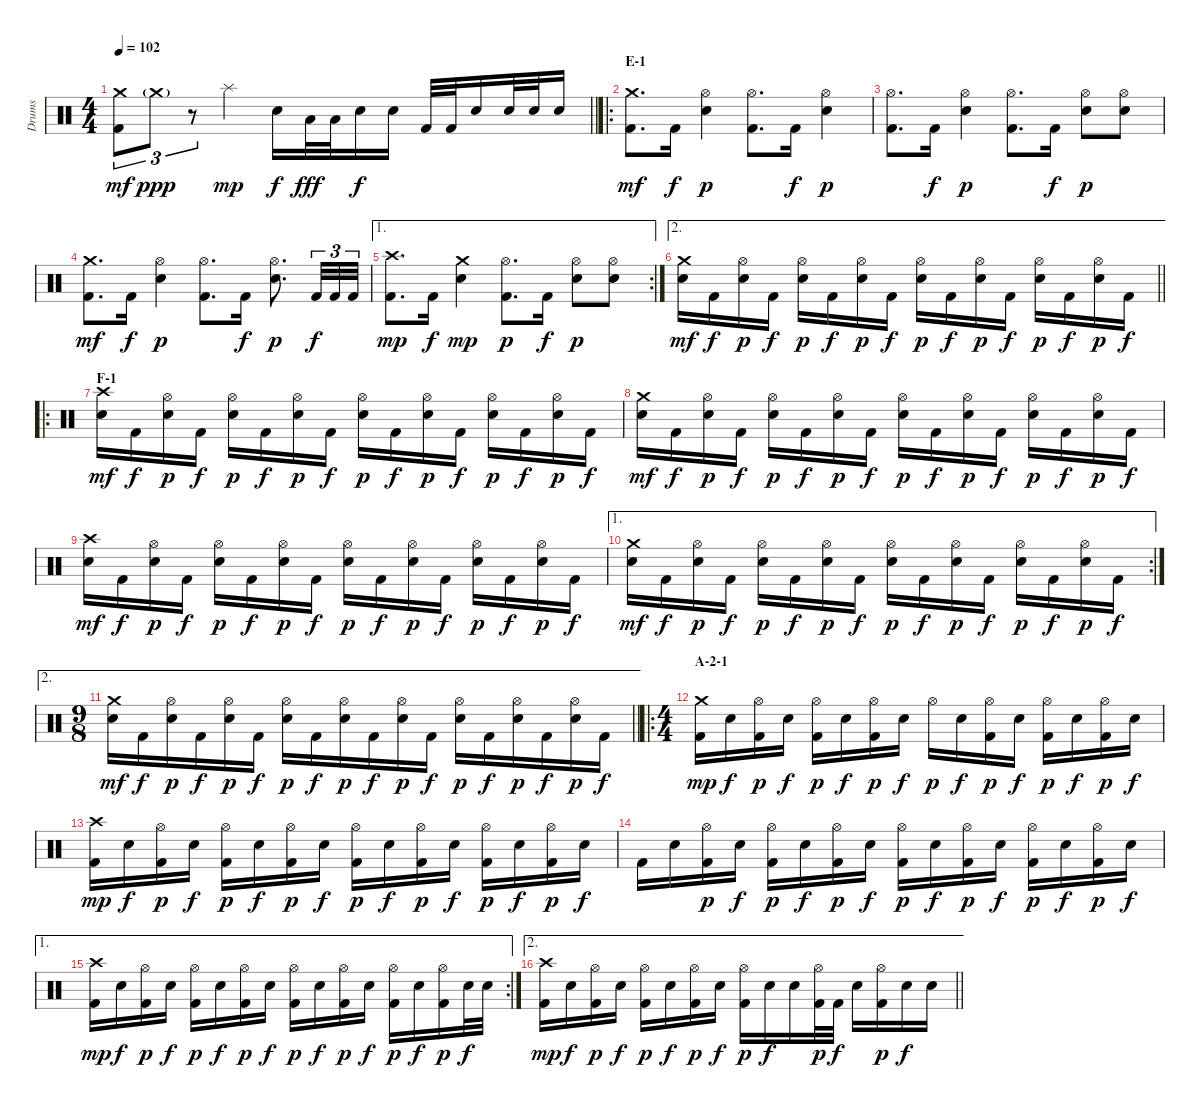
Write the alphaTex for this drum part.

\track ("Drums" "Drums") {instrument percussion}
\staff {score}
\articulation defaults
\ts (4 4)
\tempo 102
\clef neutral
\barLineRight lightlight
\ks c
("Crash medium (hit)" "Kick (hit) 2").8{tu (3 2) dy mf} "Crash medium (hit)"{g}.8{tu (3 2) dy ppp} r.8{tu (3 2)} "Splash (hit)".4{dy mp} "Electric Snare (hit)".16{dy f} "Low Tom (hit)".32{dy fff} "Low Tom (hit)".32 "Electric Snare (hit)".16{dy f} "Electric Snare (hit)".16 "Kick (hit) 2".32 "Kick (hit) 2".32 "Electric Snare (hit)".16 "Electric Snare (hit)".32 "Electric Snare (hit)".32 "Electric Snare (hit)".16 |
\ro
\section ("" "E-1")
("Crash medium (hit)" "Kick (hit) 2").8{d dy mf} "Kick (hit) 2".16{dy f} ("Hi-Hat (open)" "Electric Snare (hit)").4{dy p} ("Hi-Hat (open)" "Kick (hit) 2").8{d} "Kick (hit) 2".16{dy f} ("Hi-Hat (open)" "Electric Snare (hit)").4{dy p} |
("Hi-Hat (open)" "Kick (hit) 2").8{d} "Kick (hit) 2".16{dy f} ("Hi-Hat (open)" "Electric Snare (hit)").4{dy p} ("Hi-Hat (open)" "Kick (hit) 2").8{d} "Kick (hit) 2".16{dy f} ("Hi-Hat (open)" "Electric Snare (hit)").8{dy p} ("Hi-Hat (open)" "Electric Snare (hit)").8 |
("Crash medium (hit)" "Kick (hit) 2").8{d dy mf} "Kick (hit) 2".16{dy f} ("Hi-Hat (open)" "Electric Snare (hit)").4{dy p} ("Hi-Hat (open)" "Kick (hit) 2").8{d} "Kick (hit) 2".16{dy f} ("Hi-Hat (open)" "Electric Snare (hit)").8{d dy p} "Kick (hit) 2".32{tu (3 2) dy f} "Kick (hit) 2".32{tu (3 2)} "Kick (hit) 2".32{tu (3 2)} |
\ae 1
\rc 2
("Crash high (hit)" "Kick (hit) 2").8{d dy mp} "Kick (hit) 2".16{dy f} ("Crash medium (hit)" "Electric Snare (hit)").4{dy mp} ("Hi-Hat (open)" "Kick (hit) 2").8{d dy p} "Kick (hit) 2".16{dy f} ("Hi-Hat (open)" "Electric Snare (hit)").8{dy p} ("Hi-Hat (open)" "Electric Snare (hit)").8 |
\ae 2
\barLineRight lightlight
("Crash medium (hit)" "Electric Snare (hit)").16{dy mf} "Kick (hit) 2".16{dy f} ("Hi-Hat (open)" "Electric Snare (hit)").16{dy p} "Kick (hit) 2".16{dy f} ("Hi-Hat (open)" "Electric Snare (hit)").16{dy p} "Kick (hit) 2".16{dy f} ("Hi-Hat (open)" "Electric Snare (hit)").16{dy p} "Kick (hit) 2".16{dy f} ("Hi-Hat (open)" "Electric Snare (hit)").16{dy p} "Kick (hit) 2".16{dy f} ("Hi-Hat (open)" "Electric Snare (hit)").16{dy p} "Kick (hit) 2".16{dy f} ("Hi-Hat (open)" "Electric Snare (hit)").16{dy p} "Kick (hit) 2".16{dy f} ("Hi-Hat (open)" "Electric Snare (hit)").16{dy p} "Kick (hit) 2".16{dy f} |
\ro
\section ("" "F-1")
("Crash high (hit)" "Electric Snare (hit)").16{dy mf} "Kick (hit) 2".16{dy f} ("Hi-Hat (open)" "Electric Snare (hit)").16{dy p} "Kick (hit) 2".16{dy f} ("Hi-Hat (open)" "Electric Snare (hit)").16{dy p} "Kick (hit) 2".16{dy f} ("Hi-Hat (open)" "Electric Snare (hit)").16{dy p} "Kick (hit) 2".16{dy f} ("Hi-Hat (open)" "Electric Snare (hit)").16{dy p} "Kick (hit) 2".16{dy f} ("Hi-Hat (open)" "Electric Snare (hit)").16{dy p} "Kick (hit) 2".16{dy f} ("Hi-Hat (open)" "Electric Snare (hit)").16{dy p} "Kick (hit) 2".16{dy f} ("Hi-Hat (open)" "Electric Snare (hit)").16{dy p} "Kick (hit) 2".16{dy f} |
("Crash medium (hit)" "Electric Snare (hit)").16{dy mf} "Kick (hit) 2".16{dy f} ("Hi-Hat (open)" "Electric Snare (hit)").16{dy p} "Kick (hit) 2".16{dy f} ("Hi-Hat (open)" "Electric Snare (hit)").16{dy p} "Kick (hit) 2".16{dy f} ("Hi-Hat (open)" "Electric Snare (hit)").16{dy p} "Kick (hit) 2".16{dy f} ("Hi-Hat (open)" "Electric Snare (hit)").16{dy p} "Kick (hit) 2".16{dy f} ("Hi-Hat (open)" "Electric Snare (hit)").16{dy p} "Kick (hit) 2".16{dy f} ("Hi-Hat (open)" "Electric Snare (hit)").16{dy p} "Kick (hit) 2".16{dy f} ("Hi-Hat (open)" "Electric Snare (hit)").16{dy p} "Kick (hit) 2".16{dy f} |
("Crash high (hit)" "Electric Snare (hit)").16{dy mf} "Kick (hit) 2".16{dy f} ("Hi-Hat (open)" "Electric Snare (hit)").16{dy p} "Kick (hit) 2".16{dy f} ("Hi-Hat (open)" "Electric Snare (hit)").16{dy p} "Kick (hit) 2".16{dy f} ("Hi-Hat (open)" "Electric Snare (hit)").16{dy p} "Kick (hit) 2".16{dy f} ("Hi-Hat (open)" "Electric Snare (hit)").16{dy p} "Kick (hit) 2".16{dy f} ("Hi-Hat (open)" "Electric Snare (hit)").16{dy p} "Kick (hit) 2".16{dy f} ("Hi-Hat (open)" "Electric Snare (hit)").16{dy p} "Kick (hit) 2".16{dy f} ("Hi-Hat (open)" "Electric Snare (hit)").16{dy p} "Kick (hit) 2".16{dy f} |
\ae 1
\rc 2
("Crash medium (hit)" "Electric Snare (hit)").16{dy mf} "Kick (hit) 2".16{dy f} ("Hi-Hat (open)" "Electric Snare (hit)").16{dy p} "Kick (hit) 2".16{dy f} ("Hi-Hat (open)" "Electric Snare (hit)").16{dy p} "Kick (hit) 2".16{dy f} ("Hi-Hat (open)" "Electric Snare (hit)").16{dy p} "Kick (hit) 2".16{dy f} ("Hi-Hat (open)" "Electric Snare (hit)").16{dy p} "Kick (hit) 2".16{dy f} ("Hi-Hat (open)" "Electric Snare (hit)").16{dy p} "Kick (hit) 2".16{dy f} ("Hi-Hat (open)" "Electric Snare (hit)").16{dy p} "Kick (hit) 2".16{dy f} ("Hi-Hat (open)" "Electric Snare (hit)").16{dy p} "Kick (hit) 2".16{dy f} |
\ae 2
\ts (9 8)
\barLineRight lightlight
("Crash medium (hit)" "Electric Snare (hit)").16{dy mf} "Kick (hit) 2".16{dy f} ("Hi-Hat (open)" "Electric Snare (hit)").16{dy p} "Kick (hit) 2".16{dy f} ("Hi-Hat (open)" "Electric Snare (hit)").16{dy p} "Kick (hit) 2".16{dy f} ("Hi-Hat (open)" "Electric Snare (hit)").16{dy p} "Kick (hit) 2".16{dy f} ("Hi-Hat (open)" "Electric Snare (hit)").16{dy p} "Kick (hit) 2".16{dy f} ("Hi-Hat (open)" "Electric Snare (hit)").16{dy p} "Kick (hit) 2".16{dy f} ("Hi-Hat (open)" "Electric Snare (hit)").16{dy p} "Kick (hit) 2".16{dy f} ("Hi-Hat (open)" "Electric Snare (hit)").16{dy p} "Kick (hit) 2".16{dy f} ("Hi-Hat (open)" "Electric Snare (hit)").16{dy p} "Kick (hit) 2".16{dy f} |
\ro
\ts (4 4)
\section ("" "A-2-1")
("Crash medium (hit)" "Kick (hit) 2").16{dy mp} "Electric Snare (hit)".16{dy f} ("Hi-Hat (open)" "Kick (hit) 2").16{dy p} "Electric Snare (hit)".16{dy f} ("Hi-Hat (open)" "Kick (hit) 2").16{dy p} "Electric Snare (hit)".16{dy f} ("Hi-Hat (open)" "Kick (hit) 2").16{dy p} "Electric Snare (hit)".16{dy f} "Hi-Hat (open)".16{dy p} "Electric Snare (hit)".16{dy f} ("Hi-Hat (open)" "Kick (hit) 2").16{dy p} "Electric Snare (hit)".16{dy f} ("Hi-Hat (open)" "Kick (hit) 2").16{dy p} "Electric Snare (hit)".16{dy f} ("Hi-Hat (open)" "Kick (hit) 2").16{dy p} "Electric Snare (hit)".16{dy f} |
("Crash high (hit)" "Kick (hit) 2").16{dy mp} "Electric Snare (hit)".16{dy f} ("Hi-Hat (open)" "Kick (hit) 2").16{dy p} "Electric Snare (hit)".16{dy f} ("Hi-Hat (open)" "Kick (hit) 2").16{dy p} "Electric Snare (hit)".16{dy f} ("Hi-Hat (open)" "Kick (hit) 2").16{dy p} "Electric Snare (hit)".16{dy f} ("Hi-Hat (open)" "Kick (hit) 2").16{dy p} "Electric Snare (hit)".16{dy f} ("Hi-Hat (open)" "Kick (hit) 2").16{dy p} "Electric Snare (hit)".16{dy f} ("Hi-Hat (open)" "Kick (hit) 2").16{dy p} "Electric Snare (hit)".16{dy f} ("Hi-Hat (open)" "Kick (hit) 2").16{dy p} "Electric Snare (hit)".16{dy f} |
"Kick (hit) 2".16 "Electric Snare (hit)".16 ("Hi-Hat (open)" "Kick (hit) 2").16{dy p} "Electric Snare (hit)".16{dy f} ("Hi-Hat (open)" "Kick (hit) 2").16{dy p} "Electric Snare (hit)".16{dy f} ("Hi-Hat (open)" "Kick (hit) 2").16{dy p} "Electric Snare (hit)".16{dy f} ("Hi-Hat (open)" "Kick (hit) 2").16{dy p} "Electric Snare (hit)".16{dy f} ("Hi-Hat (open)" "Kick (hit) 2").16{dy p} "Electric Snare (hit)".16{dy f} ("Hi-Hat (open)" "Kick (hit) 2").16{dy p} "Electric Snare (hit)".16{dy f} ("Hi-Hat (open)" "Kick (hit) 2").16{dy p} "Electric Snare (hit)".16{dy f} |
\ae 1
\rc 2
("Crash high (hit)" "Kick (hit) 2").16{dy mp} "Electric Snare (hit)".16{dy f} ("Hi-Hat (open)" "Kick (hit) 2").16{dy p} "Electric Snare (hit)".16{dy f} ("Hi-Hat (open)" "Kick (hit) 2").16{dy p} "Electric Snare (hit)".16{dy f} ("Hi-Hat (open)" "Kick (hit) 2").16{dy p} "Electric Snare (hit)".16{dy f} ("Hi-Hat (open)" "Kick (hit) 2").16{dy p} "Electric Snare (hit)".16{dy f} ("Hi-Hat (open)" "Kick (hit) 2").16{dy p} "Electric Snare (hit)".16{dy f} ("Hi-Hat (open)" "Kick (hit) 2").16{dy p} "Electric Snare (hit)".16{dy f} ("Hi-Hat (open)" "Kick (hit) 2").16{dy p} "Electric Snare (hit)".32{dy f} "Electric Snare (hit)".32 |
\ae 2
\barLineRight lightlight
("Crash high (hit)" "Kick (hit) 2").16{dy mp} "Electric Snare (hit)".16{dy f} ("Hi-Hat (open)" "Kick (hit) 2").16{dy p} "Electric Snare (hit)".16{dy f} ("Hi-Hat (open)" "Kick (hit) 2").16{dy p} "Electric Snare (hit)".16{dy f} ("Hi-Hat (open)" "Kick (hit) 2").16{dy p} "Electric Snare (hit)".16{dy f} ("Hi-Hat (open)" "Kick (hit) 2").16{dy p} "Electric Snare (hit)".16{dy f} "Electric Snare (hit)".16 ("Hi-Hat (open)" "Kick (hit) 2").32{dy p} "Kick (hit) 2".32{dy f} "Electric Snare (hit)".16 ("Hi-Hat (open)" "Kick (hit) 2").16{dy p} "Electric Snare (hit)".16{dy f} "Electric Snare (hit)".16
